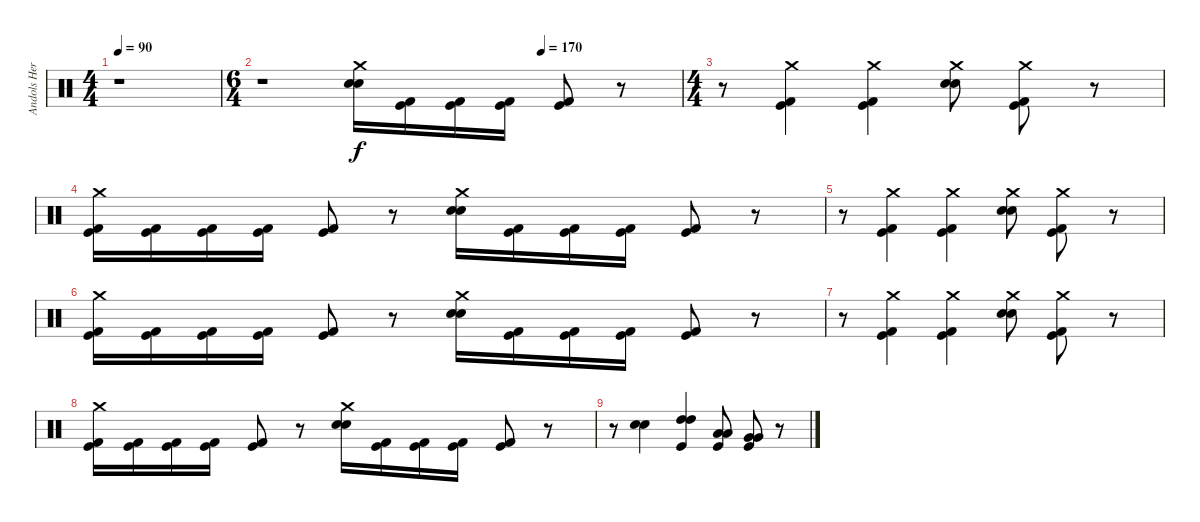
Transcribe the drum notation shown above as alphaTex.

\track ("Andols Herrick" "Andols Her") {instrument percussion}
\staff {score}
\articulation defaults
\ts (4 4)
\tempo 90
\clef neutral
\ks c
r.1{dy f} |
\ts (6 4)
\tempo (170 0.6666666666666666)
r.1 ("Crash medium (hit)" "Electric Snare (hit)" "Snare (hit) 2").16 ("Kick (hit) 2" "Kick (hit)").16 ("Kick (hit) 2" "Kick (hit)").16 ("Kick (hit) 2" "Kick (hit)").16 ("Kick (hit) 2" "Kick (hit)").8 r.8 |
\ts (4 4)
r.8 ("Crash medium (hit)" "Kick (hit) 2" "Kick (hit)").4 ("Crash medium (hit)" "Kick (hit) 2" "Kick (hit)").4 ("Crash medium (hit)" "Electric Snare (hit)" "Snare (hit) 2").8 ("Crash medium (hit)" "Kick (hit) 2" "Kick (hit)").8 r.8 |
("Crash medium (hit)" "Kick (hit) 2" "Kick (hit)").16 ("Kick (hit) 2" "Kick (hit)").16 ("Kick (hit) 2" "Kick (hit)").16 ("Kick (hit) 2" "Kick (hit)").16 ("Kick (hit) 2" "Kick (hit)").8 r.8 ("Crash medium (hit)" "Electric Snare (hit)" "Snare (hit) 2").16 ("Kick (hit) 2" "Kick (hit)").16 ("Kick (hit) 2" "Kick (hit)").16 ("Kick (hit) 2" "Kick (hit)").16 ("Kick (hit) 2" "Kick (hit)").8 r.8 |
r.8 ("Crash medium (hit)" "Kick (hit) 2" "Kick (hit)").4 ("Crash medium (hit)" "Kick (hit) 2" "Kick (hit)").4 ("Crash medium (hit)" "Electric Snare (hit)" "Snare (hit) 2").8 ("Crash medium (hit)" "Kick (hit) 2" "Kick (hit)").8 r.8 |
("Crash medium (hit)" "Kick (hit) 2" "Kick (hit)").16 ("Kick (hit) 2" "Kick (hit)").16 ("Kick (hit) 2" "Kick (hit)").16 ("Kick (hit) 2" "Kick (hit)").16 ("Kick (hit) 2" "Kick (hit)").8 r.8 ("Crash medium (hit)" "Electric Snare (hit)" "Snare (hit) 2").16 ("Kick (hit) 2" "Kick (hit)").16 ("Kick (hit) 2" "Kick (hit)").16 ("Kick (hit) 2" "Kick (hit)").16 ("Kick (hit) 2" "Kick (hit)").8 r.8 |
r.8 ("Crash medium (hit)" "Kick (hit) 2" "Kick (hit)").4 ("Crash medium (hit)" "Kick (hit) 2" "Kick (hit)").4 ("Crash medium (hit)" "Electric Snare (hit)" "Snare (hit) 2").8 ("Crash medium (hit)" "Kick (hit) 2" "Kick (hit)").8 r.8 |
("Crash medium (hit)" "Kick (hit) 2" "Kick (hit)").16 ("Kick (hit) 2" "Kick (hit)").16 ("Kick (hit) 2" "Kick (hit)").16 ("Kick (hit) 2" "Kick (hit)").16 ("Kick (hit) 2" "Kick (hit)").8 r.8 ("Crash medium (hit)" "Electric Snare (hit)" "Snare (hit) 2").16 ("Kick (hit) 2" "Kick (hit)").16 ("Kick (hit) 2" "Kick (hit)").16 ("Kick (hit) 2" "Kick (hit)").16 ("Kick (hit) 2" "Kick (hit)").8 r.8 |
r.8 ("Electric Snare (hit)" "Snare (hit) 2").4 ("High Tom (hit)" "High Tom (hit)" "Kick (hit)").4 ("Low Tom (hit)" "Low Tom (hit)" "Kick (hit)").8 ("Very Low Tom (hit)" "Very Low Tom (hit)" "Kick (hit)").8 r.8
